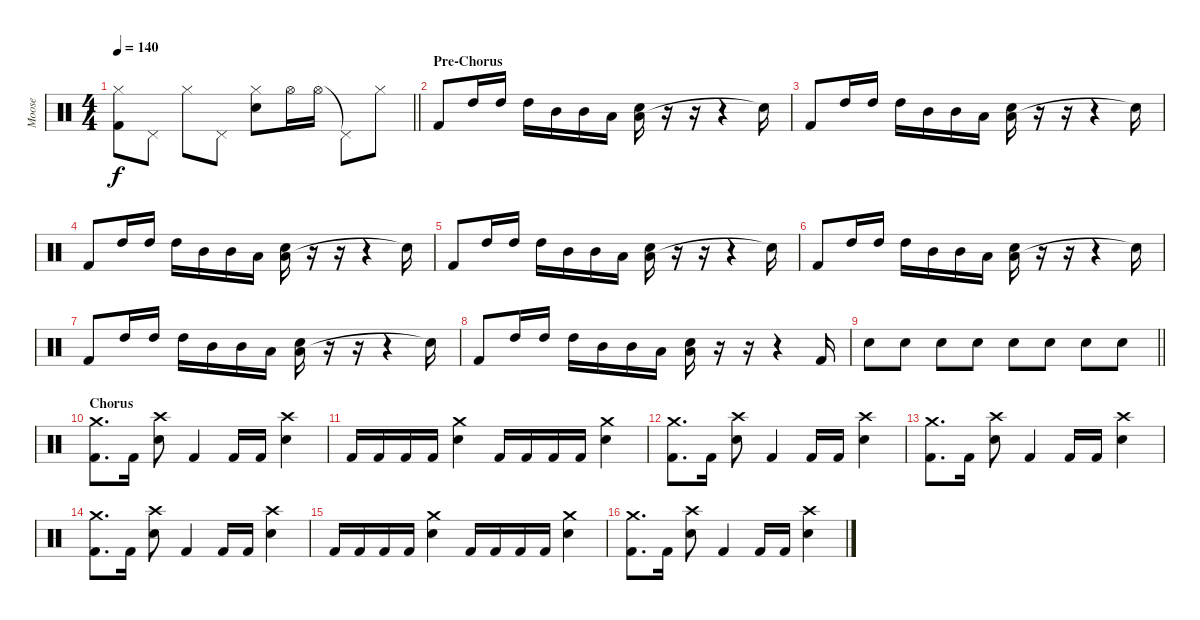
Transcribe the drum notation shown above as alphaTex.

\track ("Moose" "Moose") {instrument percussion}
\staff {score}
\articulation defaults
\ts (4 4)
\tempo 140
\clef neutral
\barLineRight lightlight
\ks c
("Hi-Hat (closed)" "Kick (hit) 2").8{dy f} "Pedal Hi-Hat (hit)".8 "Hi-Hat (closed)".8 "Pedal Hi-Hat (hit)".8 ("Hi-Hat (closed)" "Snare (hit) 2").8 "Hi-Hat (open)".16 "Hi-Hat (open)".16 "Pedal Hi-Hat (hit)"{t}.8 "Hi-Hat (closed)".8 |
\section ("" "Pre-Chorus")
"Kick (hit) 2".8 "High Tom (hit)".16 "High Tom (hit)".16 "High Tom (hit)".16 "Mid Tom (hit)".16 "Mid Tom (hit)".16 "Low Tom (hit)".16 ("Low Tom (hit)" "Snare (hit) 2").16 r.16 r.16 r.4 "Snare (hit)"{t}.16 |
"Kick (hit) 2".8 "High Tom (hit)".16 "High Tom (hit)".16 "High Tom (hit)".16 "Mid Tom (hit)".16 "Mid Tom (hit)".16 "Low Tom (hit)".16 ("Low Tom (hit)" "Snare (hit) 2").16 r.16 r.16 r.4 "Snare (hit)"{t}.16 |
"Kick (hit) 2".8 "High Tom (hit)".16 "High Tom (hit)".16 "High Tom (hit)".16 "Mid Tom (hit)".16 "Mid Tom (hit)".16 "Low Tom (hit)".16 ("Low Tom (hit)" "Snare (hit) 2").16 r.16 r.16 r.4 "Snare (hit)"{t}.16 |
"Kick (hit) 2".8 "High Tom (hit)".16 "High Tom (hit)".16 "High Tom (hit)".16 "Mid Tom (hit)".16 "Mid Tom (hit)".16 "Low Tom (hit)".16 ("Low Tom (hit)" "Snare (hit) 2").16 r.16 r.16 r.4 "Snare (hit)"{t}.16 |
"Kick (hit) 2".8 "High Tom (hit)".16 "High Tom (hit)".16 "High Tom (hit)".16 "Mid Tom (hit)".16 "Mid Tom (hit)".16 "Low Tom (hit)".16 ("Low Tom (hit)" "Snare (hit) 2").16 r.16 r.16 r.4 "Snare (hit)"{t}.16 |
"Kick (hit) 2".8 "High Tom (hit)".16 "High Tom (hit)".16 "High Tom (hit)".16 "Mid Tom (hit)".16 "Mid Tom (hit)".16 "Low Tom (hit)".16 ("Low Tom (hit)" "Snare (hit) 2").16 r.16 r.16 r.4 "Snare (hit)"{t}.16 |
"Kick (hit) 2".8 "High Tom (hit)".16 "High Tom (hit)".16 "High Tom (hit)".16 "Mid Tom (hit)".16 "Mid Tom (hit)".16 "Low Tom (hit)".16 ("Low Tom (hit)" "Snare (hit) 2").16 r.16 r.16 r.4 "Kick (hit) 2".16 |
\barLineRight lightlight "Snare (hit) 2".8 "Snare (hit) 2".8 "Snare (hit) 2".8 "Snare (hit) 2".8 "Snare (hit) 2".8 "Snare (hit) 2".8 "Snare (hit) 2".8 "Snare (hit) 2".8
|
\section ("" "Chorus")
("Crash medium (hit)" "Kick (hit) 2").8{d} "Kick (hit) 2".16 ("Crash high (hit)" "Snare (hit) 2").8 "Kick (hit) 2".4 "Kick (hit) 2".16 "Kick (hit) 2".16 ("Crash high (hit)" "Snare (hit) 2").4 |
"Kick (hit) 2".16 "Kick (hit) 2".16 "Kick (hit) 2".16 "Kick (hit) 2".16 ("Crash medium (hit)" "Snare (hit) 2").4 "Kick (hit) 2".16 "Kick (hit) 2".16 "Kick (hit) 2".16 "Kick (hit) 2".16 ("Crash medium (hit)" "Snare (hit) 2").4 |
("Crash medium (hit)" "Kick (hit) 2").8{d} "Kick (hit) 2".16 ("Crash high (hit)" "Snare (hit) 2").8 "Kick (hit) 2".4 "Kick (hit) 2".16 "Kick (hit) 2".16 ("Crash high (hit)" "Snare (hit) 2").4 |
("Crash medium (hit)" "Kick (hit) 2").8{d} "Kick (hit) 2".16 ("Crash high (hit)" "Snare (hit) 2").8 "Kick (hit) 2".4 "Kick (hit) 2".16 "Kick (hit) 2".16 ("Crash high (hit)" "Snare (hit) 2").4 |
("Crash medium (hit)" "Kick (hit) 2").8{d} "Kick (hit) 2".16 ("Crash high (hit)" "Snare (hit) 2").8 "Kick (hit) 2".4 "Kick (hit) 2".16 "Kick (hit) 2".16 ("Crash high (hit)" "Snare (hit) 2").4 |
"Kick (hit) 2".16 "Kick (hit) 2".16 "Kick (hit) 2".16 "Kick (hit) 2".16 ("Crash medium (hit)" "Snare (hit) 2").4 "Kick (hit) 2".16 "Kick (hit) 2".16 "Kick (hit) 2".16 "Kick (hit) 2".16 ("Crash medium (hit)" "Snare (hit) 2").4 |
("Crash medium (hit)" "Kick (hit) 2").8{d} "Kick (hit) 2".16 ("Crash high (hit)" "Snare (hit) 2").8 "Kick (hit) 2".4 "Kick (hit) 2".16 "Kick (hit) 2".16 ("Crash high (hit)" "Snare (hit) 2").4
